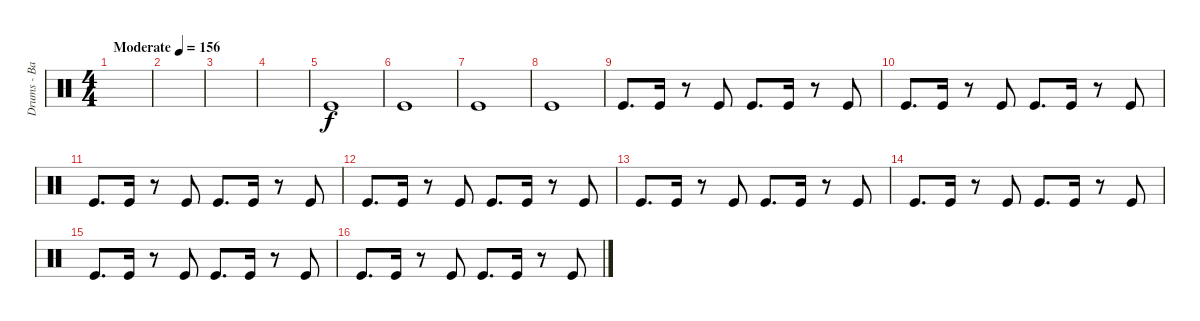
\track ("Drums - Bass Drums" "Drums - Ba") {instrument percussion}
\staff {score}
\articulation defaults
\ts (4 4)
\tempo (156 "Moderate")
\clef neutral
\ks c
|
|
|
|
"Kick (hit)".1 |
"Kick (hit)".1 |
"Kick (hit)".1 |
"Kick (hit)".1 |
"Kick (hit)".8{d} "Kick (hit)".16 r.8 "Kick (hit)".8 "Kick (hit)".8{d} "Kick (hit)".16 r.8 "Kick (hit)".8 |
"Kick (hit)".8{d} "Kick (hit)".16 r.8 "Kick (hit)".8 "Kick (hit)".8{d} "Kick (hit)".16 r.8 "Kick (hit)".8 |
"Kick (hit)".8{d} "Kick (hit)".16 r.8 "Kick (hit)".8 "Kick (hit)".8{d} "Kick (hit)".16 r.8 "Kick (hit)".8 |
"Kick (hit)".8{d} "Kick (hit)".16 r.8 "Kick (hit)".8 "Kick (hit)".8{d} "Kick (hit)".16 r.8 "Kick (hit)".8 |
"Kick (hit)".8{d} "Kick (hit)".16 r.8 "Kick (hit)".8 "Kick (hit)".8{d} "Kick (hit)".16 r.8 "Kick (hit)".8 |
"Kick (hit)".8{d} "Kick (hit)".16 r.8 "Kick (hit)".8 "Kick (hit)".8{d} "Kick (hit)".16 r.8 "Kick (hit)".8 |
"Kick (hit)".8{d} "Kick (hit)".16 r.8 "Kick (hit)".8 "Kick (hit)".8{d} "Kick (hit)".16 r.8 "Kick (hit)".8 |
"Kick (hit)".8{d} "Kick (hit)".16 r.8 "Kick (hit)".8 "Kick (hit)".8{d} "Kick (hit)".16 r.8 "Kick (hit)".8
